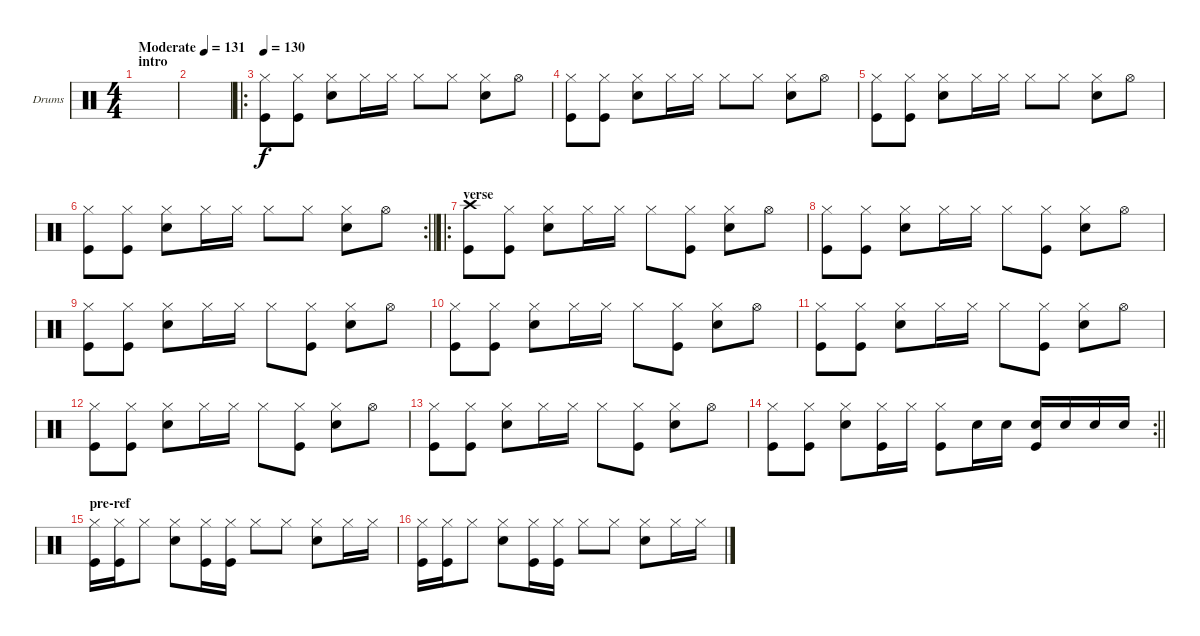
\bracketExtendMode groupsimilarinstruments
\firstSystemTrackNameOrientation horizontal
\otherSystemsTrackNameOrientation horizontal
\track ("Drumkit" "Drums") {instrument percussion}
\staff {score}
\articulation defaults
\ts (4 4)
\beaming (8 2 2 2 2)
\section ("" "intro")
\tempo (131 "Moderate")
\clef neutral
\scale
0.448889
\ks c
|
\scale
0.248889 |
\ro
\tempo 130
\scale
0.302222 ("Hi-Hat (closed)" "Kick (hit)").8 ("Hi-Hat (closed)" "Kick (hit)").8 ("Hi-Hat (closed)" "Snare (hit) 2").8 "Hi-Hat (closed)".16 "Hi-Hat (closed)".16 "Hi-Hat (closed)".8 "Hi-Hat (closed)".8 ("Hi-Hat (closed)" "Snare (hit) 2").8 "Hi-Hat (open)".8 |
\scale
0.321839 ("Hi-Hat (closed)" "Kick (hit)").8 ("Hi-Hat (closed)" "Kick (hit)").8 ("Hi-Hat (closed)" "Snare (hit) 2").8 "Hi-Hat (closed)".16 "Hi-Hat (closed)".16 "Hi-Hat (closed)".8 "Hi-Hat (closed)".8 ("Hi-Hat (closed)" "Snare (hit) 2").8 "Hi-Hat (open)".8 |
\scale
0.321839 ("Hi-Hat (closed)" "Kick (hit)").8 ("Hi-Hat (closed)" "Kick (hit)").8 ("Hi-Hat (closed)" "Snare (hit) 2").8 "Hi-Hat (closed)".16 "Hi-Hat (closed)".16 "Hi-Hat (closed)".8 "Hi-Hat (closed)".8 ("Hi-Hat (closed)" "Snare (hit) 2").8 "Hi-Hat (open)".8 |
\rc 2
\scale
0.356322
\barLineRight lightlight
("Hi-Hat (closed)" "Kick (hit)").8 ("Hi-Hat (closed)" "Kick (hit)").8 ("Hi-Hat (closed)" "Snare (hit) 2").8 "Hi-Hat (closed)".16 "Hi-Hat (closed)".16 "Hi-Hat (closed)".8 "Hi-Hat (closed)".8 ("Hi-Hat (closed)" "Snare (hit) 2").8 "Hi-Hat (open)".8 |
\ro
\section ("" "verse")
\scale
0.377778 ("Crash high (hit)" "Kick (hit)").8 ("Hi-Hat (closed)" "Kick (hit)").8 ("Hi-Hat (closed)" "Snare (hit) 2").8 "Hi-Hat (closed)".16 "Hi-Hat (closed)".16 "Hi-Hat (closed)".8 ("Hi-Hat (closed)" "Kick (hit)").8 ("Hi-Hat (closed)" "Snare (hit) 2").8 "Hi-Hat (open)".8 |
\scale
0.311111 ("Hi-Hat (closed)" "Kick (hit)").8 ("Hi-Hat (closed)" "Kick (hit)").8 ("Hi-Hat (closed)" "Snare (hit) 2").8 "Hi-Hat (closed)".16 "Hi-Hat (closed)".16 "Hi-Hat (closed)".8 ("Hi-Hat (closed)" "Kick (hit)").8 ("Hi-Hat (closed)" "Snare (hit) 2").8 "Hi-Hat (open)".8 |
\scale
0.311111 ("Hi-Hat (closed)" "Kick (hit)").8 ("Hi-Hat (closed)" "Kick (hit)").8 ("Hi-Hat (closed)" "Snare (hit) 2").8 "Hi-Hat (closed)".16 "Hi-Hat (closed)".16 "Hi-Hat (closed)".8 ("Hi-Hat (closed)" "Kick (hit)").8 ("Hi-Hat (closed)" "Snare (hit) 2").8 "Hi-Hat (open)".8 |
\scale
0.333333 ("Hi-Hat (closed)" "Kick (hit)").8 ("Hi-Hat (closed)" "Kick (hit)").8 ("Hi-Hat (closed)" "Snare (hit) 2").8 "Hi-Hat (closed)".16 "Hi-Hat (closed)".16 "Hi-Hat (closed)".8 ("Hi-Hat (closed)" "Kick (hit)").8 ("Hi-Hat (closed)" "Snare (hit) 2").8 "Hi-Hat (open)".8 |
\scale
0.333333 ("Hi-Hat (closed)" "Kick (hit)").8 ("Hi-Hat (closed)" "Kick (hit)").8 ("Hi-Hat (closed)" "Snare (hit) 2").8 "Hi-Hat (closed)".16 "Hi-Hat (closed)".16 "Hi-Hat (closed)".8 ("Hi-Hat (closed)" "Kick (hit)").8 ("Hi-Hat (closed)" "Snare (hit) 2").8 "Hi-Hat (open)".8 |
\scale
0.333333 ("Hi-Hat (closed)" "Kick (hit)").8 ("Hi-Hat (closed)" "Kick (hit)").8 ("Hi-Hat (closed)" "Snare (hit) 2").8 "Hi-Hat (closed)".16 "Hi-Hat (closed)".16 "Hi-Hat (closed)".8 ("Hi-Hat (closed)" "Kick (hit)").8 ("Hi-Hat (closed)" "Snare (hit) 2").8 "Hi-Hat (open)".8 |
\scale
0.321839 ("Hi-Hat (closed)" "Kick (hit)").8 ("Hi-Hat (closed)" "Kick (hit)").8 ("Hi-Hat (closed)" "Snare (hit) 2").8 "Hi-Hat (closed)".16 "Hi-Hat (closed)".16 "Hi-Hat (closed)".8 ("Hi-Hat (closed)" "Kick (hit)").8 ("Hi-Hat (closed)" "Snare (hit) 2").8 "Hi-Hat (open)".8 |
\rc 2
\scale
0.356322
\barLineRight lightlight
("Hi-Hat (closed)" "Kick (hit)").8 ("Hi-Hat (closed)" "Kick (hit)").8 ("Hi-Hat (closed)" "Snare (hit) 2").8 ("Hi-Hat (closed)" "Kick (hit)").16 "Hi-Hat (closed)".16 ("Hi-Hat (closed)" "Kick (hit)").8 "Snare (hit) 2".16 "Snare (hit) 2".16 ("Snare (hit) 2" "Kick (hit)").16 "Snare (hit) 2".16 "Snare (hit) 2".16 "Snare (hit) 2".16 |
\section ("" "pre-ref")
\scale
0.321839 ("Hi-Hat (closed)" "Kick (hit)").16 ("Hi-Hat (closed)" "Kick (hit)").16 "Hi-Hat (closed)".8 ("Hi-Hat (closed)" "Snare (hit) 2").8 ("Hi-Hat (closed)" "Kick (hit)").16 ("Hi-Hat (closed)" "Kick (hit)").16 "Hi-Hat (closed)".8 "Hi-Hat (closed)".8 ("Hi-Hat (closed)" "Snare (hit) 2").8 "Hi-Hat (closed)".16 "Hi-Hat (closed)".16 |
\scale
0.333333 ("Hi-Hat (closed)" "Kick (hit)").16 ("Hi-Hat (closed)" "Kick (hit)").16 "Hi-Hat (closed)".8 ("Hi-Hat (closed)" "Snare (hit) 2").8 ("Hi-Hat (closed)" "Kick (hit)").16 ("Hi-Hat (closed)" "Kick (hit)").16 "Hi-Hat (closed)".8 "Hi-Hat (closed)".8 ("Hi-Hat (closed)" "Snare (hit) 2").8 "Hi-Hat (closed)".16 "Hi-Hat (closed)".16
